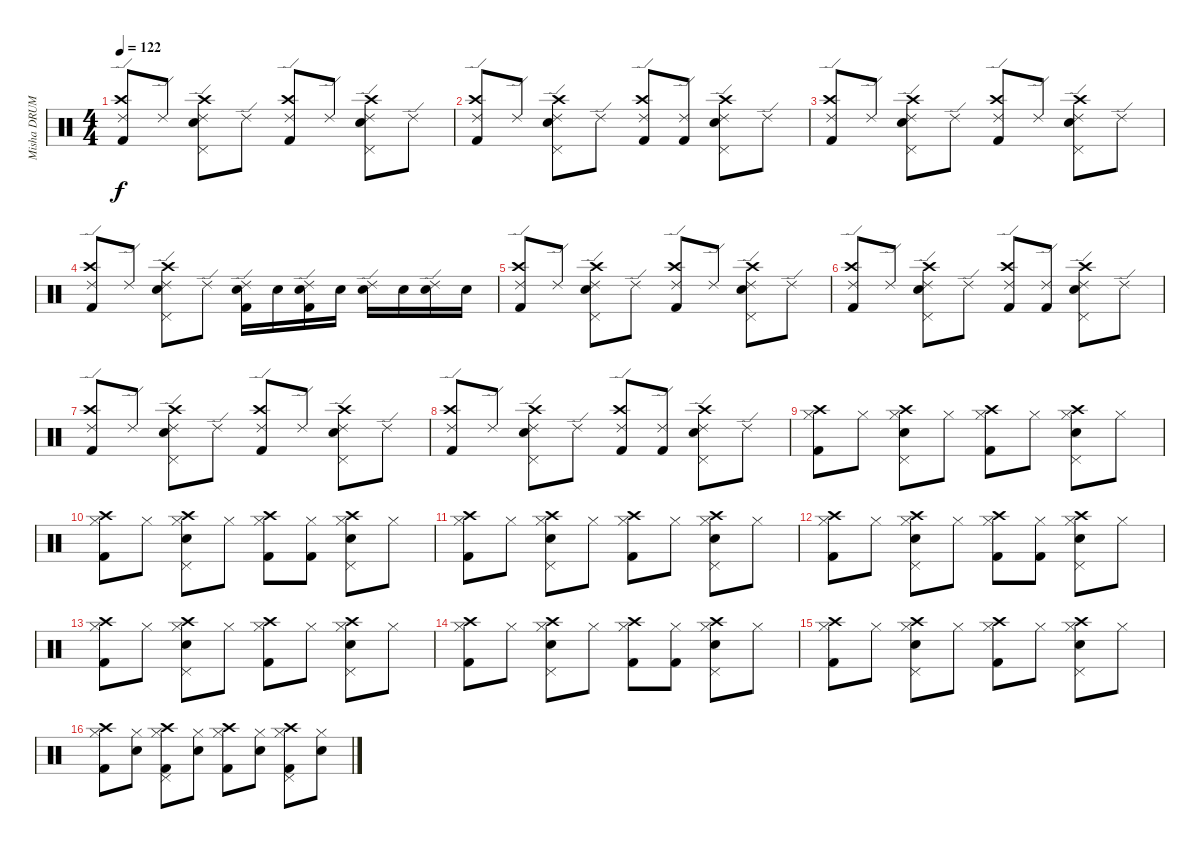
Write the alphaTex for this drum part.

\track ("Misha DRUMS" "Misha DRUM") {instrument percussion}
\staff {score}
\articulation defaults
\ts (4 4)
\tempo 122
\clef neutral
\ks c
("Ride (edge) 2" "Crash high (hit)" "Kick (hit) 2").8{dy f} "Ride (edge) 2".8 ("Ride (edge) 2" "Crash high (hit)" "Pedal Hi-Hat (hit)" "Snare (hit) 2").8 "Ride (edge) 2".8 ("Ride (edge) 2" "Crash high (hit)" "Kick (hit) 2").8 "Ride (edge) 2".8 ("Ride (edge) 2" "Crash high (hit)" "Pedal Hi-Hat (hit)" "Snare (hit) 2").8 "Ride (edge) 2".8 |
("Ride (edge) 2" "Crash high (hit)" "Kick (hit) 2").8 "Ride (edge) 2".8 ("Ride (edge) 2" "Crash high (hit)" "Pedal Hi-Hat (hit)" "Snare (hit) 2").8 "Ride (edge) 2".8 ("Ride (edge) 2" "Crash high (hit)" "Kick (hit) 2").8 ("Ride (edge) 2" "Kick (hit) 2").8 ("Ride (edge) 2" "Crash high (hit)" "Pedal Hi-Hat (hit)" "Snare (hit) 2").8 "Ride (edge) 2".8 |
("Ride (edge) 2" "Crash high (hit)" "Kick (hit) 2").8 "Ride (edge) 2".8 ("Ride (edge) 2" "Crash high (hit)" "Pedal Hi-Hat (hit)" "Snare (hit) 2").8 "Ride (edge) 2".8 ("Ride (edge) 2" "Crash high (hit)" "Kick (hit) 2").8 "Ride (edge) 2".8 ("Ride (edge) 2" "Crash high (hit)" "Pedal Hi-Hat (hit)" "Snare (hit) 2").8 "Ride (edge) 2".8 |
("Ride (edge) 2" "Crash high (hit)" "Kick (hit) 2").8 "Ride (edge) 2".8 ("Ride (edge) 2" "Crash high (hit)" "Pedal Hi-Hat (hit)" "Snare (hit) 2").8 "Ride (edge) 2".8 ("Ride (edge) 2" "Snare (hit) 2" "Kick (hit) 2").16 "Snare (hit) 2".16 ("Ride (edge) 2" "Snare (hit) 2" "Kick (hit) 2").16 "Snare (hit) 2".16 ("Ride (edge) 2" "Snare (hit) 2").16 "Snare (hit) 2".16 ("Ride (edge) 2" "Snare (hit) 2").16 "Snare (hit) 2".16 |
("Ride (edge) 2" "Crash high (hit)" "Kick (hit) 2").8 "Ride (edge) 2".8 ("Ride (edge) 2" "Crash high (hit)" "Pedal Hi-Hat (hit)" "Snare (hit) 2").8 "Ride (edge) 2".8 ("Ride (edge) 2" "Crash high (hit)" "Kick (hit) 2").8 "Ride (edge) 2".8 ("Ride (edge) 2" "Crash high (hit)" "Pedal Hi-Hat (hit)" "Snare (hit) 2").8 "Ride (edge) 2".8 |
("Ride (edge) 2" "Crash high (hit)" "Kick (hit) 2").8 "Ride (edge) 2".8 ("Ride (edge) 2" "Crash high (hit)" "Pedal Hi-Hat (hit)" "Snare (hit) 2").8 "Ride (edge) 2".8 ("Ride (edge) 2" "Crash high (hit)" "Kick (hit) 2").8 ("Ride (edge) 2" "Kick (hit) 2").8 ("Ride (edge) 2" "Crash high (hit)" "Pedal Hi-Hat (hit)" "Snare (hit) 2").8 "Ride (edge) 2".8 |
("Ride (edge) 2" "Crash high (hit)" "Kick (hit) 2").8 "Ride (edge) 2".8 ("Ride (edge) 2" "Crash high (hit)" "Pedal Hi-Hat (hit)" "Snare (hit) 2").8 "Ride (edge) 2".8 ("Ride (edge) 2" "Crash high (hit)" "Kick (hit) 2").8 "Ride (edge) 2".8 ("Ride (edge) 2" "Crash high (hit)" "Pedal Hi-Hat (hit)" "Snare (hit) 2").8 "Ride (edge) 2".8 |
("Ride (edge) 2" "Crash high (hit)" "Kick (hit) 2").8 "Ride (edge) 2".8 ("Ride (edge) 2" "Crash high (hit)" "Pedal Hi-Hat (hit)" "Snare (hit) 2").8 "Ride (edge) 2".8 ("Ride (edge) 2" "Crash high (hit)" "Kick (hit) 2").8 ("Ride (edge) 2" "Kick (hit) 2").8 ("Ride (edge) 2" "Crash high (hit)" "Pedal Hi-Hat (hit)" "Snare (hit) 2").8 "Ride (edge) 2".8 |
("Hi-Hat (closed)" "Crash high (hit)" "Kick (hit) 2").8 "Hi-Hat (closed)".8 ("Hi-Hat (closed)" "Crash high (hit)" "Pedal Hi-Hat (hit)" "Snare (hit) 2").8 "Hi-Hat (closed)".8 ("Hi-Hat (closed)" "Crash high (hit)" "Kick (hit) 2").8 "Hi-Hat (closed)".8 ("Hi-Hat (closed)" "Crash high (hit)" "Pedal Hi-Hat (hit)" "Snare (hit) 2").8 "Hi-Hat (closed)".8 |
("Hi-Hat (closed)" "Crash high (hit)" "Kick (hit) 2").8 "Hi-Hat (closed)".8 ("Hi-Hat (closed)" "Crash high (hit)" "Pedal Hi-Hat (hit)" "Snare (hit) 2").8 "Hi-Hat (closed)".8 ("Hi-Hat (closed)" "Crash high (hit)" "Kick (hit) 2").8 ("Hi-Hat (closed)" "Kick (hit) 2").8 ("Hi-Hat (closed)" "Crash high (hit)" "Pedal Hi-Hat (hit)" "Snare (hit) 2").8 "Hi-Hat (closed)".8 |
("Hi-Hat (closed)" "Crash high (hit)" "Kick (hit) 2").8 "Hi-Hat (closed)".8 ("Hi-Hat (closed)" "Crash high (hit)" "Pedal Hi-Hat (hit)" "Snare (hit) 2").8 "Hi-Hat (closed)".8 ("Hi-Hat (closed)" "Crash high (hit)" "Kick (hit) 2").8 "Hi-Hat (closed)".8 ("Hi-Hat (closed)" "Crash high (hit)" "Pedal Hi-Hat (hit)" "Snare (hit) 2").8 "Hi-Hat (closed)".8 |
("Hi-Hat (closed)" "Crash high (hit)" "Kick (hit) 2").8 "Hi-Hat (closed)".8 ("Hi-Hat (closed)" "Crash high (hit)" "Pedal Hi-Hat (hit)" "Snare (hit) 2").8 "Hi-Hat (closed)".8 ("Hi-Hat (closed)" "Crash high (hit)" "Kick (hit) 2").8 ("Hi-Hat (closed)" "Kick (hit) 2").8 ("Hi-Hat (closed)" "Crash high (hit)" "Pedal Hi-Hat (hit)" "Snare (hit) 2").8 "Hi-Hat (closed)".8 |
("Hi-Hat (closed)" "Crash high (hit)" "Kick (hit) 2").8 "Hi-Hat (closed)".8 ("Hi-Hat (closed)" "Crash high (hit)" "Pedal Hi-Hat (hit)" "Snare (hit) 2").8 "Hi-Hat (closed)".8 ("Hi-Hat (closed)" "Crash high (hit)" "Kick (hit) 2").8 "Hi-Hat (closed)".8 ("Hi-Hat (closed)" "Crash high (hit)" "Pedal Hi-Hat (hit)" "Snare (hit) 2").8 "Hi-Hat (closed)".8 |
("Hi-Hat (closed)" "Crash high (hit)" "Kick (hit) 2").8 "Hi-Hat (closed)".8 ("Hi-Hat (closed)" "Crash high (hit)" "Pedal Hi-Hat (hit)" "Snare (hit) 2").8 "Hi-Hat (closed)".8 ("Hi-Hat (closed)" "Crash high (hit)" "Kick (hit) 2").8 ("Hi-Hat (closed)" "Kick (hit) 2").8 ("Hi-Hat (closed)" "Crash high (hit)" "Pedal Hi-Hat (hit)" "Snare (hit) 2").8 "Hi-Hat (closed)".8 |
("Hi-Hat (closed)" "Crash high (hit)" "Kick (hit) 2").8 "Hi-Hat (closed)".8 ("Hi-Hat (closed)" "Crash high (hit)" "Pedal Hi-Hat (hit)" "Snare (hit) 2").8 "Hi-Hat (closed)".8 ("Hi-Hat (closed)" "Crash high (hit)" "Kick (hit) 2").8 "Hi-Hat (closed)".8 ("Hi-Hat (closed)" "Crash high (hit)" "Pedal Hi-Hat (hit)" "Snare (hit) 2").8 "Hi-Hat (closed)".8 |
("Hi-Hat (closed)" "Crash high (hit)" "Kick (hit) 2").8 ("Hi-Hat (closed)" "Snare (hit) 2").8 ("Hi-Hat (closed)" "Crash high (hit)" "Pedal Hi-Hat (hit)" "Kick (hit) 2").8 ("Hi-Hat (closed)" "Snare (hit) 2").8 ("Hi-Hat (closed)" "Crash high (hit)" "Kick (hit) 2").8 ("Hi-Hat (closed)" "Snare (hit) 2").8 ("Hi-Hat (closed)" "Crash high (hit)" "Pedal Hi-Hat (hit)" "Kick (hit) 2").8 ("Hi-Hat (closed)" "Snare (hit) 2").8
